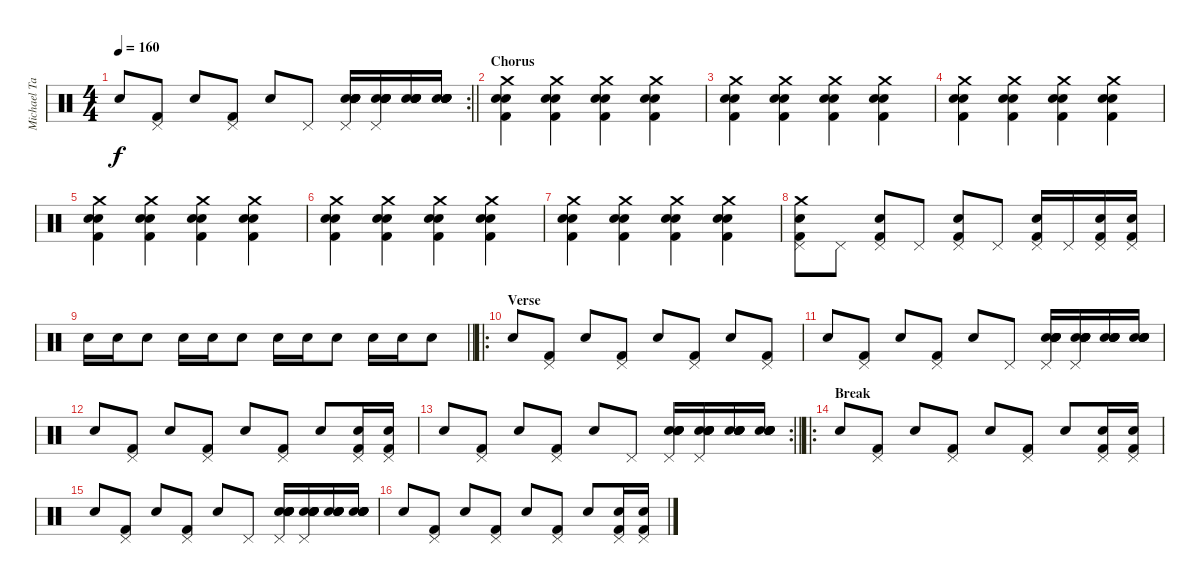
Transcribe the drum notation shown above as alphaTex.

\track ("Michael Tapper" "Michael Ta") {instrument percussion}
\staff {score}
\articulation defaults
\rc 2
\ts (4 4)
\tempo 160
\clef neutral
\barLineRight lightlight
\ks c "Electric Snare (hit)".8{dy f}
("Pedal Hi-Hat (hit)" "Kick (hit) 2").8 "Electric Snare (hit)".8 ("Pedal Hi-Hat (hit)" "Kick (hit) 2").8 "Electric Snare (hit)".8 "Pedal Hi-Hat (hit)".8 ("Pedal Hi-Hat (hit)" "Electric Snare (hit)" "Electric Snare (hit)" "Electric Snare (hit)" "Electric Snare (hit)" "Electric Snare (hit)").16 ("Pedal Hi-Hat (hit)" "Electric Snare (hit)" "Electric Snare (hit)" "Electric Snare (hit)" "Electric Snare (hit)" "Electric Snare (hit)").16 ("Electric Snare (hit)" "Electric Snare (hit)" "Electric Snare (hit)" "Electric Snare (hit)" "Electric Snare (hit)").16 ("Electric Snare (hit)" "Electric Snare (hit)" "Electric Snare (hit)" "Electric Snare (hit)" "Electric Snare (hit)").16 |
\section ("" "Chorus")
("Crash medium (hit)" "Electric Snare (hit)" "Electric Snare (hit)" "Kick (hit) 2").4 ("Crash medium (hit)" "Electric Snare (hit)" "Electric Snare (hit)" "Kick (hit) 2").4 ("Crash medium (hit)" "Electric Snare (hit)" "Electric Snare (hit)" "Kick (hit) 2").4 ("Crash medium (hit)" "Electric Snare (hit)" "Electric Snare (hit)" "Kick (hit) 2").4 |
("Crash medium (hit)" "Electric Snare (hit)" "Electric Snare (hit)" "Kick (hit) 2").4 ("Crash medium (hit)" "Electric Snare (hit)" "Electric Snare (hit)" "Kick (hit) 2").4 ("Crash medium (hit)" "Electric Snare (hit)" "Electric Snare (hit)" "Kick (hit) 2").4 ("Crash medium (hit)" "Electric Snare (hit)" "Electric Snare (hit)" "Kick (hit) 2").4 |
("Crash medium (hit)" "Electric Snare (hit)" "Electric Snare (hit)" "Kick (hit) 2").4 ("Crash medium (hit)" "Electric Snare (hit)" "Electric Snare (hit)" "Kick (hit) 2").4 ("Crash medium (hit)" "Electric Snare (hit)" "Electric Snare (hit)" "Kick (hit) 2").4 ("Crash medium (hit)" "Electric Snare (hit)" "Electric Snare (hit)" "Kick (hit) 2").4 |
("Crash medium (hit)" "Electric Snare (hit)" "Electric Snare (hit)" "Kick (hit) 2").4 ("Crash medium (hit)" "Electric Snare (hit)" "Electric Snare (hit)" "Kick (hit) 2").4 ("Crash medium (hit)" "Electric Snare (hit)" "Electric Snare (hit)" "Kick (hit) 2").4 ("Crash medium (hit)" "Electric Snare (hit)" "Electric Snare (hit)" "Kick (hit) 2").4 |
("Crash medium (hit)" "Electric Snare (hit)" "Electric Snare (hit)" "Kick (hit) 2").4 ("Crash medium (hit)" "Electric Snare (hit)" "Electric Snare (hit)" "Kick (hit) 2").4 ("Crash medium (hit)" "Electric Snare (hit)" "Electric Snare (hit)" "Kick (hit) 2").4 ("Crash medium (hit)" "Electric Snare (hit)" "Electric Snare (hit)" "Kick (hit) 2").4 |
("Crash medium (hit)" "Electric Snare (hit)" "Electric Snare (hit)" "Kick (hit) 2").4 ("Crash medium (hit)" "Electric Snare (hit)" "Electric Snare (hit)" "Kick (hit) 2").4 ("Crash medium (hit)" "Electric Snare (hit)" "Electric Snare (hit)" "Kick (hit) 2").4 ("Crash medium (hit)" "Electric Snare (hit)" "Electric Snare (hit)" "Kick (hit) 2").4 |
("Crash medium (hit)" "Pedal Hi-Hat (hit)" "Electric Snare (hit)" "Kick (hit) 2").8 "Pedal Hi-Hat (hit)".8 ("Pedal Hi-Hat (hit)" "Electric Snare (hit)" "Kick (hit) 2").8 "Pedal Hi-Hat (hit)".8 ("Pedal Hi-Hat (hit)" "Electric Snare (hit)" "Kick (hit) 2").8 "Pedal Hi-Hat (hit)".8 ("Pedal Hi-Hat (hit)" "Electric Snare (hit)" "Kick (hit) 2").16 "Pedal Hi-Hat (hit)".16 ("Pedal Hi-Hat (hit)" "Electric Snare (hit)" "Kick (hit) 2").16 ("Pedal Hi-Hat (hit)" "Electric Snare (hit)" "Kick (hit) 2").16 |
\barLineRight lightlight "Electric Snare (hit)".16 "Electric Snare (hit)".16 "Electric Snare (hit)".8 "Electric Snare (hit)".16 "Electric Snare (hit)".16 "Electric Snare (hit)".8 "Electric Snare (hit)".16 "Electric Snare (hit)".16 "Electric Snare (hit)".8 "Electric Snare (hit)".16 "Electric Snare (hit)".16 "Electric Snare (hit)".8
|
\ro
\section ("" "Verse")
"Electric Snare (hit)".8 ("Pedal Hi-Hat (hit)" "Kick (hit) 2").8 "Electric Snare (hit)".8 ("Pedal Hi-Hat (hit)" "Kick (hit) 2").8 "Electric Snare (hit)".8 ("Pedal Hi-Hat (hit)" "Kick (hit) 2").8 "Electric Snare (hit)".8 ("Pedal Hi-Hat (hit)" "Kick (hit) 2").8 |
"Electric Snare (hit)".8 ("Pedal Hi-Hat (hit)" "Kick (hit) 2").8 "Electric Snare (hit)".8 ("Pedal Hi-Hat (hit)" "Kick (hit) 2").8 "Electric Snare (hit)".8 "Pedal Hi-Hat (hit)".8 ("Pedal Hi-Hat (hit)" "Electric Snare (hit)" "Electric Snare (hit)" "Electric Snare (hit)" "Electric Snare (hit)" "Electric Snare (hit)").16 ("Pedal Hi-Hat (hit)" "Electric Snare (hit)" "Electric Snare (hit)" "Electric Snare (hit)" "Electric Snare (hit)" "Electric Snare (hit)").16 ("Electric Snare (hit)" "Electric Snare (hit)" "Electric Snare (hit)" "Electric Snare (hit)" "Electric Snare (hit)").16 ("Electric Snare (hit)" "Electric Snare (hit)" "Electric Snare (hit)" "Electric Snare (hit)" "Electric Snare (hit)").16 |
"Electric Snare (hit)".8 ("Pedal Hi-Hat (hit)" "Kick (hit) 2").8 "Electric Snare (hit)".8 ("Pedal Hi-Hat (hit)" "Kick (hit) 2").8 "Electric Snare (hit)".8 ("Pedal Hi-Hat (hit)" "Kick (hit) 2").8 "Electric Snare (hit)".8 ("Pedal Hi-Hat (hit)" "Electric Snare (hit)" "Kick (hit) 2").16 ("Pedal Hi-Hat (hit)" "Electric Snare (hit)" "Kick (hit) 2").16 |
\rc 2
\barLineRight lightlight "Electric Snare (hit)".8
("Pedal Hi-Hat (hit)" "Kick (hit) 2").8 "Electric Snare (hit)".8 ("Pedal Hi-Hat (hit)" "Kick (hit) 2").8 "Electric Snare (hit)".8 "Pedal Hi-Hat (hit)".8 ("Pedal Hi-Hat (hit)" "Electric Snare (hit)" "Electric Snare (hit)" "Electric Snare (hit)" "Electric Snare (hit)" "Electric Snare (hit)").16 ("Pedal Hi-Hat (hit)" "Electric Snare (hit)" "Electric Snare (hit)" "Electric Snare (hit)" "Electric Snare (hit)" "Electric Snare (hit)").16 ("Electric Snare (hit)" "Electric Snare (hit)" "Electric Snare (hit)" "Electric Snare (hit)" "Electric Snare (hit)").16 ("Electric Snare (hit)" "Electric Snare (hit)" "Electric Snare (hit)" "Electric Snare (hit)" "Electric Snare (hit)").16 |
\ro
\section ("" "Break")
"Electric Snare (hit)".8 ("Pedal Hi-Hat (hit)" "Kick (hit) 2").8 "Electric Snare (hit)".8 ("Pedal Hi-Hat (hit)" "Kick (hit) 2").8 "Electric Snare (hit)".8 ("Pedal Hi-Hat (hit)" "Kick (hit) 2").8 "Electric Snare (hit)".8 ("Pedal Hi-Hat (hit)" "Electric Snare (hit)" "Kick (hit) 2").16 ("Pedal Hi-Hat (hit)" "Electric Snare (hit)" "Kick (hit) 2").16 |
"Electric Snare (hit)".8 ("Pedal Hi-Hat (hit)" "Kick (hit) 2").8 "Electric Snare (hit)".8 ("Pedal Hi-Hat (hit)" "Kick (hit) 2").8 "Electric Snare (hit)".8 "Pedal Hi-Hat (hit)".8 ("Pedal Hi-Hat (hit)" "Electric Snare (hit)" "Electric Snare (hit)" "Electric Snare (hit)" "Electric Snare (hit)" "Electric Snare (hit)").16 ("Pedal Hi-Hat (hit)" "Electric Snare (hit)" "Electric Snare (hit)" "Electric Snare (hit)" "Electric Snare (hit)" "Electric Snare (hit)").16 ("Electric Snare (hit)" "Electric Snare (hit)" "Electric Snare (hit)" "Electric Snare (hit)" "Electric Snare (hit)").16 ("Electric Snare (hit)" "Electric Snare (hit)" "Electric Snare (hit)" "Electric Snare (hit)" "Electric Snare (hit)").16 |
"Electric Snare (hit)".8 ("Pedal Hi-Hat (hit)" "Kick (hit) 2").8 "Electric Snare (hit)".8 ("Pedal Hi-Hat (hit)" "Kick (hit) 2").8 "Electric Snare (hit)".8 ("Pedal Hi-Hat (hit)" "Kick (hit) 2").8 "Electric Snare (hit)".8 ("Pedal Hi-Hat (hit)" "Electric Snare (hit)" "Kick (hit) 2").16 ("Pedal Hi-Hat (hit)" "Electric Snare (hit)" "Kick (hit) 2").16
